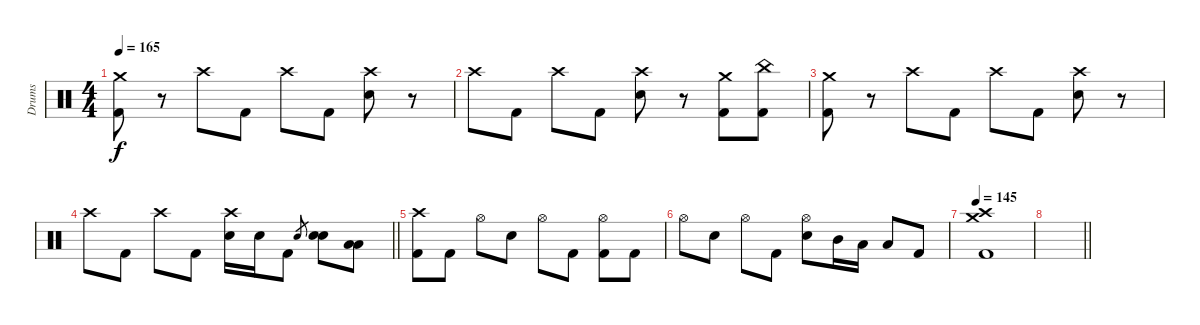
\track ("Drums" "Drums") {instrument percussion}
\staff {score}
\articulation defaults
\ts (4 4)
\tempo 165
\clef neutral
\ks c
("Crash medium (hit)" "Kick (hit) 2").8{dy f} r.8 "Crash high (hit)".8 "Kick (hit) 2".8 "Crash high (hit)".8 "Kick (hit) 2".8 ("Crash high (hit)" "Electric Snare (hit)").8 r.8 |
"Crash high (hit)".8 "Kick (hit) 2".8 "Crash high (hit)".8 "Kick (hit) 2".8 ("Crash high (hit)" "Electric Snare (hit)").8 r.8 ("Crash medium (hit)" "Kick (hit) 2").8 ("China (hit)" "Kick (hit) 2").8 |
("Crash medium (hit)" "Kick (hit) 2").8 r.8 "Crash high (hit)".8 "Kick (hit) 2".8 "Crash high (hit)".8 "Kick (hit) 2".8 ("Crash high (hit)" "Electric Snare (hit)").8 r.8 |
\barLineRight lightlight "Crash high (hit)".8 "Kick (hit) 2".8 "Crash high (hit)".8 "Kick (hit) 2".8
("Crash high (hit)" "Electric Snare (hit)").16 "Electric Snare (hit)".16 "Kick (hit) 2".8 "Electric Snare (hit)".8{gr} ("Electric Snare (hit)" "Electric Snare (hit)").8 ("Low Tom (hit)" "Low Floor Tom (hit)").8 |
("Crash high (hit)" "Kick (hit) 2").8 "Kick (hit) 2".8 "Hi-Hat (open)".8 "Electric Snare (hit)".8 "Hi-Hat (open)".8 "Kick (hit) 2".8 ("Hi-Hat (open)" "Kick (hit) 2").8 "Kick (hit) 2".8 |
"Hi-Hat (open)".8 "Electric Snare (hit)".8 "Hi-Hat (open)".8 "Kick (hit) 2".8 ("Hi-Hat (open)" "Electric Snare (hit)").8 "Mid Tom (hit)".16 "Low Tom (hit)".16 "Low Floor Tom (hit)".8 "Kick (hit) 2".8 |
\tempo 145
("Crash medium (hit)" "Crash high (hit)" "Kick (hit) 2").1 |
\barLineRight lightlight
